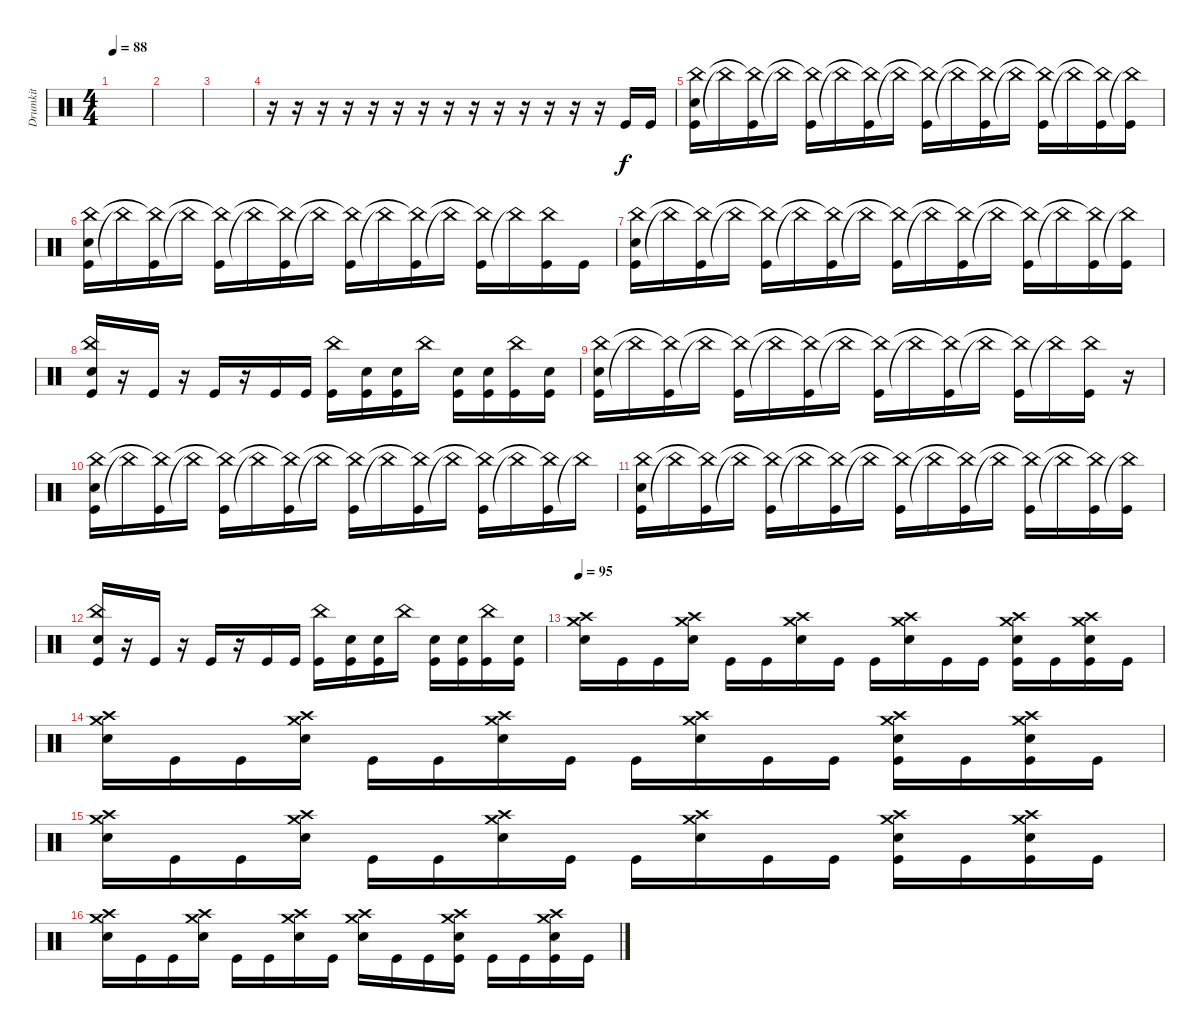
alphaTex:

\track ("Drumkit" "Drumkit") {instrument percussion}
\staff {score}
\articulation defaults
\ts (4 4)
\tempo 88
\clef neutral
\ks c
|
|
|
r.16 r.16 r.16 r.16 r.16 r.16 r.16 r.16 r.16 r.16 r.16 r.16 r.16 r.16 "Kick (hit)".16 "Kick (hit)".16 |
("Kick (hit)" "China (hit)" "Snare (hit) 2").16 "China (hit)"{t}.16 ("Kick (hit)" "China (hit)"{t}).16 "China (hit)"{t}.16 ("Kick (hit)" "China (hit)"{t}).16 "China (hit)"{t}.16 ("Kick (hit)" "China (hit)"{t}).16 "China (hit)"{t}.16 ("Kick (hit)" "China (hit)"{t}).16 "China (hit)"{t}.16 ("Kick (hit)" "China (hit)"{t}).16 "China (hit)"{t}.16 ("Kick (hit)" "China (hit)"{t}).16 "China (hit)"{t}.16 ("Kick (hit)" "China (hit)"{t}).16 ("China (hit)"{t} "Kick (hit)").16 |
("Kick (hit)" "China (hit)" "Snare (hit) 2").16 "China (hit)"{t}.16 ("Kick (hit)" "China (hit)"{t}).16 "China (hit)"{t}.16 ("Kick (hit)" "China (hit)"{t}).16 "China (hit)"{t}.16 ("Kick (hit)" "China (hit)"{t}).16 "China (hit)"{t}.16 ("Kick (hit)" "China (hit)"{t}).16 "China (hit)"{t}.16 ("Kick (hit)" "China (hit)"{t}).16 "China (hit)"{t}.16 ("Kick (hit)" "China (hit)"{t}).16 "China (hit)"{t}.16 ("Kick (hit)" "China (hit)").16 "Kick (hit)".16 |
("Kick (hit)" "China (hit)" "Snare (hit) 2").16 "China (hit)"{t}.16 ("Kick (hit)" "China (hit)"{t}).16 "China (hit)"{t}.16 ("Kick (hit)" "China (hit)"{t}).16 "China (hit)"{t}.16 ("Kick (hit)" "China (hit)"{t}).16 "China (hit)"{t}.16 ("Kick (hit)" "China (hit)"{t}).16 "China (hit)"{t}.16 ("Kick (hit)" "China (hit)"{t}).16 "China (hit)"{t}.16 ("Kick (hit)" "China (hit)"{t}).16 "China (hit)"{t}.16 ("Kick (hit)" "China (hit)"{t}).16 ("China (hit)"{t} "Kick (hit)").16 |
("Kick (hit)" "China (hit)" "Snare (hit) 2").16 r.16 "Kick (hit)".16 r.16 "Kick (hit)".16 r.16 "Kick (hit)".16 "Kick (hit)".16 ("Kick (hit)" "China (hit)").16 ("Snare (hit) 2" "Kick (hit)").16 ("Kick (hit)" "Snare (hit) 2").16 "China (hit)".16 ("Kick (hit)" "Snare (hit) 2").16 ("Snare (hit) 2" "Kick (hit)").16 ("Kick (hit)" "China (hit)").16 ("Snare (hit) 2" "Kick (hit)").16 |
("Kick (hit)" "China (hit)" "Snare (hit) 2").16 "China (hit)"{t}.16 ("Kick (hit)" "China (hit)"{t}).16 "China (hit)"{t}.16 ("Kick (hit)" "China (hit)"{t}).16 "China (hit)"{t}.16 ("Kick (hit)" "China (hit)"{t}).16 "China (hit)"{t}.16 ("Kick (hit)" "China (hit)"{t}).16 "China (hit)"{t}.16 ("Kick (hit)" "China (hit)"{t}).16 "China (hit)"{t}.16 ("Kick (hit)" "China (hit)"{t}).16 "China (hit)"{t}.16 ("Kick (hit)" "China (hit)").16 r.16 |
("Kick (hit)" "China (hit)" "Snare (hit) 2").16 "China (hit)"{t}.16 ("Kick (hit)" "China (hit)"{t}).16 "China (hit)"{t}.16 ("Kick (hit)" "China (hit)"{t}).16 "China (hit)"{t}.16 ("Kick (hit)" "China (hit)"{t}).16 "China (hit)"{t}.16 ("Kick (hit)" "China (hit)"{t}).16 "China (hit)"{t}.16 ("Kick (hit)" "China (hit)"{t}).16 "China (hit)"{t}.16 ("Kick (hit)" "China (hit)"{t}).16 "China (hit)"{t}.16 ("Kick (hit)" "China (hit)"{t}).16 "China (hit)"{t}.16 |
("Kick (hit)" "China (hit)" "Snare (hit) 2").16 "China (hit)"{t}.16 ("Kick (hit)" "China (hit)"{t}).16 "China (hit)"{t}.16 ("Kick (hit)" "China (hit)"{t}).16 "China (hit)"{t}.16 ("Kick (hit)" "China (hit)"{t}).16 "China (hit)"{t}.16 ("Kick (hit)" "China (hit)"{t}).16 "China (hit)"{t}.16 ("Kick (hit)" "China (hit)"{t}).16 "China (hit)"{t}.16 ("Kick (hit)" "China (hit)"{t}).16 "China (hit)"{t}.16 ("Kick (hit)" "China (hit)"{t}).16 ("China (hit)"{t} "Kick (hit)").16 |
("Kick (hit)" "China (hit)" "Snare (hit) 2").16 r.16 "Kick (hit)".16 r.16 "Kick (hit)".16 r.16 "Kick (hit)".16 "Kick (hit)".16 ("Kick (hit)" "China (hit)").16 ("Snare (hit) 2" "Kick (hit)").16 ("Kick (hit)" "Snare (hit) 2").16 "China (hit)".16 ("Kick (hit)" "Snare (hit) 2").16 ("Snare (hit) 2" "Kick (hit)").16 ("Kick (hit)" "China (hit)").16 ("Snare (hit) 2" "Kick (hit)").16 |
\tempo 95
("Crash high (hit)" "Snare (hit) 2" "Crash medium (hit)").16 "Kick (hit)".16 "Kick (hit)".16 ("Crash high (hit)" "Snare (hit) 2" "Crash medium (hit)").16 "Kick (hit)".16 "Kick (hit)".16 ("Crash high (hit)" "Snare (hit) 2" "Crash medium (hit)").16 "Kick (hit)".16 "Kick (hit)".16 ("Crash high (hit)" "Snare (hit) 2" "Crash medium (hit)").16 "Kick (hit)".16 "Kick (hit)".16 ("Kick (hit)" "Crash high (hit)" "Snare (hit) 2" "Crash medium (hit)").16 "Kick (hit)".16 ("Kick (hit)" "Crash high (hit)" "Snare (hit) 2" "Crash medium (hit)").16 "Kick (hit)".16 |
("Crash high (hit)" "Snare (hit) 2" "Crash medium (hit)").16 "Kick (hit)".16 "Kick (hit)".16 ("Crash high (hit)" "Snare (hit) 2" "Crash medium (hit)").16 "Kick (hit)".16 "Kick (hit)".16 ("Crash high (hit)" "Snare (hit) 2" "Crash medium (hit)").16 "Kick (hit)".16 "Kick (hit)".16 ("Crash high (hit)" "Snare (hit) 2" "Crash medium (hit)").16 "Kick (hit)".16 "Kick (hit)".16 ("Kick (hit)" "Crash high (hit)" "Snare (hit) 2" "Crash medium (hit)").16 "Kick (hit)".16 ("Kick (hit)" "Crash high (hit)" "Snare (hit) 2" "Crash medium (hit)").16 "Kick (hit)".16 |
("Crash high (hit)" "Snare (hit) 2" "Crash medium (hit)").16 "Kick (hit)".16 "Kick (hit)".16 ("Crash high (hit)" "Snare (hit) 2" "Crash medium (hit)").16 "Kick (hit)".16 "Kick (hit)".16 ("Crash high (hit)" "Snare (hit) 2" "Crash medium (hit)").16 "Kick (hit)".16 "Kick (hit)".16 ("Crash high (hit)" "Snare (hit) 2" "Crash medium (hit)").16 "Kick (hit)".16 "Kick (hit)".16 ("Kick (hit)" "Crash high (hit)" "Snare (hit) 2" "Crash medium (hit)").16 "Kick (hit)".16 ("Kick (hit)" "Crash high (hit)" "Snare (hit) 2" "Crash medium (hit)").16 "Kick (hit)".16 |
("Crash high (hit)" "Snare (hit) 2" "Crash medium (hit)").16 "Kick (hit)".16 "Kick (hit)".16 ("Crash high (hit)" "Snare (hit) 2" "Crash medium (hit)").16 "Kick (hit)".16 "Kick (hit)".16 ("Crash high (hit)" "Snare (hit) 2" "Crash medium (hit)").16 "Kick (hit)".16 ("Crash high (hit)" "Snare (hit) 2" "Crash medium (hit)").16 "Kick (hit)".16 "Kick (hit)".16 ("Kick (hit)" "Crash high (hit)" "Snare (hit) 2" "Crash medium (hit)").16 "Kick (hit)".16 "Kick (hit)".16 ("Kick (hit)" "Crash high (hit)" "Snare (hit) 2" "Crash medium (hit)").16 "Kick (hit)".16
